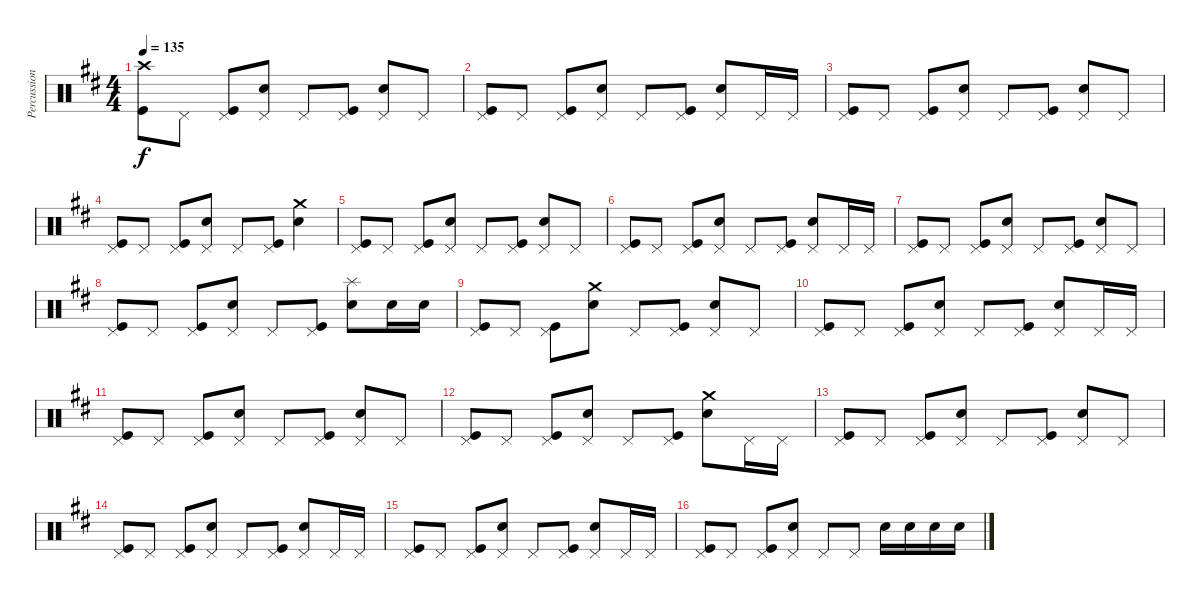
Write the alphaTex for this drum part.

\track ("Percussion" "Percussion") {instrument percussion}
\staff {score}
\articulation defaults
\ts (4 4)
\tempo 135
\clef neutral
\ks d
("Crash high (hit)" "Kick (hit)").8{dy f} "Pedal Hi-Hat (hit)".8 ("Pedal Hi-Hat (hit)" "Kick (hit)").8 ("Pedal Hi-Hat (hit)" "Electric Snare (hit)").8 "Pedal Hi-Hat (hit)".8 ("Pedal Hi-Hat (hit)" "Kick (hit)").8 ("Pedal Hi-Hat (hit)" "Electric Snare (hit)").8 "Pedal Hi-Hat (hit)".8 |
("Pedal Hi-Hat (hit)" "Kick (hit)").8 "Pedal Hi-Hat (hit)".8 ("Pedal Hi-Hat (hit)" "Kick (hit)").8 ("Pedal Hi-Hat (hit)" "Electric Snare (hit)").8 "Pedal Hi-Hat (hit)".8 ("Pedal Hi-Hat (hit)" "Kick (hit)").8 ("Pedal Hi-Hat (hit)" "Electric Snare (hit)").8 "Pedal Hi-Hat (hit)".16 "Pedal Hi-Hat (hit)".16 |
("Pedal Hi-Hat (hit)" "Kick (hit)").8 "Pedal Hi-Hat (hit)".8 ("Pedal Hi-Hat (hit)" "Kick (hit)").8 ("Pedal Hi-Hat (hit)" "Electric Snare (hit)").8 "Pedal Hi-Hat (hit)".8 ("Pedal Hi-Hat (hit)" "Kick (hit)").8 ("Pedal Hi-Hat (hit)" "Electric Snare (hit)").8 "Pedal Hi-Hat (hit)".8 |
("Pedal Hi-Hat (hit)" "Kick (hit)").8 "Pedal Hi-Hat (hit)".8 ("Pedal Hi-Hat (hit)" "Kick (hit)").8 ("Pedal Hi-Hat (hit)" "Electric Snare (hit)").8 "Pedal Hi-Hat (hit)".8 ("Pedal Hi-Hat (hit)" "Kick (hit)").8 ("Crash medium (hit)" "Electric Snare (hit)").4 |
("Pedal Hi-Hat (hit)" "Kick (hit)").8 "Pedal Hi-Hat (hit)".8 ("Pedal Hi-Hat (hit)" "Kick (hit)").8 ("Pedal Hi-Hat (hit)" "Electric Snare (hit)").8 "Pedal Hi-Hat (hit)".8 ("Pedal Hi-Hat (hit)" "Kick (hit)").8 ("Pedal Hi-Hat (hit)" "Electric Snare (hit)").8 "Pedal Hi-Hat (hit)".8 |
("Pedal Hi-Hat (hit)" "Kick (hit)").8 "Pedal Hi-Hat (hit)".8 ("Pedal Hi-Hat (hit)" "Kick (hit)").8 ("Pedal Hi-Hat (hit)" "Electric Snare (hit)").8 "Pedal Hi-Hat (hit)".8 ("Pedal Hi-Hat (hit)" "Kick (hit)").8 ("Pedal Hi-Hat (hit)" "Electric Snare (hit)").8 "Pedal Hi-Hat (hit)".16 "Pedal Hi-Hat (hit)".16 |
("Pedal Hi-Hat (hit)" "Kick (hit)").8 "Pedal Hi-Hat (hit)".8 ("Pedal Hi-Hat (hit)" "Kick (hit)").8 ("Pedal Hi-Hat (hit)" "Electric Snare (hit)").8 "Pedal Hi-Hat (hit)".8 ("Pedal Hi-Hat (hit)" "Kick (hit)").8 ("Pedal Hi-Hat (hit)" "Electric Snare (hit)").8 "Pedal Hi-Hat (hit)".8 |
("Pedal Hi-Hat (hit)" "Kick (hit)").8 "Pedal Hi-Hat (hit)".8 ("Pedal Hi-Hat (hit)" "Kick (hit)").8 ("Pedal Hi-Hat (hit)" "Electric Snare (hit)").8 "Pedal Hi-Hat (hit)".8 ("Pedal Hi-Hat (hit)" "Kick (hit)").8 ("Splash (hit)" "Electric Snare (hit)").8 "Electric Snare (hit)".16 "Electric Snare (hit)".16 |
("Pedal Hi-Hat (hit)" "Kick (hit)").8 "Pedal Hi-Hat (hit)".8 ("Pedal Hi-Hat (hit)" "Kick (hit)").8 ("Crash medium (hit)" "Electric Snare (hit)").8 "Pedal Hi-Hat (hit)".8 ("Pedal Hi-Hat (hit)" "Kick (hit)").8 ("Pedal Hi-Hat (hit)" "Electric Snare (hit)").8 "Pedal Hi-Hat (hit)".8 |
("Pedal Hi-Hat (hit)" "Kick (hit)").8 "Pedal Hi-Hat (hit)".8 ("Pedal Hi-Hat (hit)" "Kick (hit)").8 ("Pedal Hi-Hat (hit)" "Electric Snare (hit)").8 "Pedal Hi-Hat (hit)".8 ("Pedal Hi-Hat (hit)" "Kick (hit)").8 ("Pedal Hi-Hat (hit)" "Electric Snare (hit)").8 "Pedal Hi-Hat (hit)".16 "Pedal Hi-Hat (hit)".16 |
("Pedal Hi-Hat (hit)" "Kick (hit)").8 "Pedal Hi-Hat (hit)".8 ("Pedal Hi-Hat (hit)" "Kick (hit)").8 ("Pedal Hi-Hat (hit)" "Electric Snare (hit)").8 "Pedal Hi-Hat (hit)".8 ("Pedal Hi-Hat (hit)" "Kick (hit)").8 ("Pedal Hi-Hat (hit)" "Electric Snare (hit)").8 "Pedal Hi-Hat (hit)".8 |
("Pedal Hi-Hat (hit)" "Kick (hit)").8 "Pedal Hi-Hat (hit)".8 ("Pedal Hi-Hat (hit)" "Kick (hit)").8 ("Pedal Hi-Hat (hit)" "Electric Snare (hit)").8 "Pedal Hi-Hat (hit)".8 ("Pedal Hi-Hat (hit)" "Kick (hit)").8 ("Crash medium (hit)" "Electric Snare (hit)").8 "Pedal Hi-Hat (hit)".16 "Pedal Hi-Hat (hit)".16 |
("Pedal Hi-Hat (hit)" "Kick (hit)").8 "Pedal Hi-Hat (hit)".8 ("Pedal Hi-Hat (hit)" "Kick (hit)").8 ("Pedal Hi-Hat (hit)" "Electric Snare (hit)").8 "Pedal Hi-Hat (hit)".8 ("Pedal Hi-Hat (hit)" "Kick (hit)").8 ("Pedal Hi-Hat (hit)" "Electric Snare (hit)").8 "Pedal Hi-Hat (hit)".8 |
("Pedal Hi-Hat (hit)" "Kick (hit)").8 "Pedal Hi-Hat (hit)".8 ("Pedal Hi-Hat (hit)" "Kick (hit)").8 ("Pedal Hi-Hat (hit)" "Electric Snare (hit)").8 "Pedal Hi-Hat (hit)".8 ("Pedal Hi-Hat (hit)" "Kick (hit)").8 ("Pedal Hi-Hat (hit)" "Electric Snare (hit)").8 "Pedal Hi-Hat (hit)".16 "Pedal Hi-Hat (hit)".16 |
("Pedal Hi-Hat (hit)" "Kick (hit)").8 "Pedal Hi-Hat (hit)".8 ("Pedal Hi-Hat (hit)" "Kick (hit)").8 ("Pedal Hi-Hat (hit)" "Electric Snare (hit)").8 "Pedal Hi-Hat (hit)".8 ("Pedal Hi-Hat (hit)" "Kick (hit)").8 ("Pedal Hi-Hat (hit)" "Electric Snare (hit)").8 "Pedal Hi-Hat (hit)".16 "Pedal Hi-Hat (hit)".16 |
("Pedal Hi-Hat (hit)" "Kick (hit)").8 "Pedal Hi-Hat (hit)".8 ("Pedal Hi-Hat (hit)" "Kick (hit)").8 ("Pedal Hi-Hat (hit)" "Electric Snare (hit)").8 "Pedal Hi-Hat (hit)".8 "Pedal Hi-Hat (hit)".8 "Electric Snare (hit)".16 "Electric Snare (hit)".16 "Electric Snare (hit)".16 "Electric Snare (hit)".16
